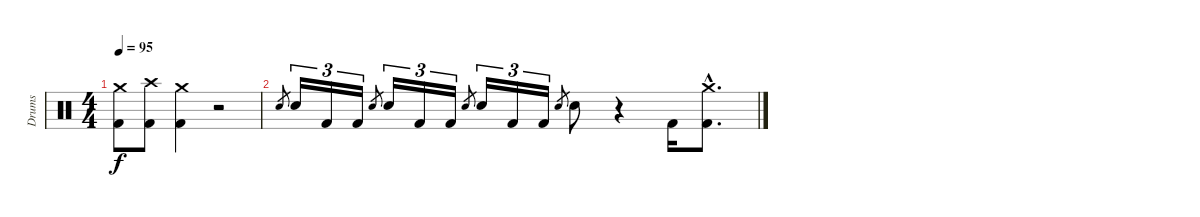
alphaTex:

\track ("Drums" "Drums") {instrument percussion}
\staff {score}
\articulation defaults
\ts (4 4)
\tempo 95
\clef neutral
\ks c
("Crash medium (hit)" "Kick (hit) 2").8{dy f} ("Crash high (hit)" "Kick (hit) 2").8 ("Crash medium (hit)" "Kick (hit) 2").4 r.2 |
"Snare (hit) 2".8{gr} "Snare (hit) 2".16{tu (3 2)} "Kick (hit) 2".16{tu (3 2)} "Kick (hit) 2".16{tu (3 2)} "Snare (hit) 2".8{gr} "Snare (hit) 2".16{tu (3 2)} "Kick (hit) 2".16{tu (3 2)} "Kick (hit) 2".16{tu (3 2)} "Snare (hit) 2".8{gr} "Snare (hit) 2".16{tu (3 2)} "Kick (hit) 2".16{tu (3 2)} "Kick (hit) 2".16{tu (3 2)} "Snare (hit) 2".8{gr} "Snare (hit) 2".8 r.4 "Kick (hit) 2".16 ("Crash medium (hit)"{hac} "Kick (hit) 2"{hac}).8{d}
